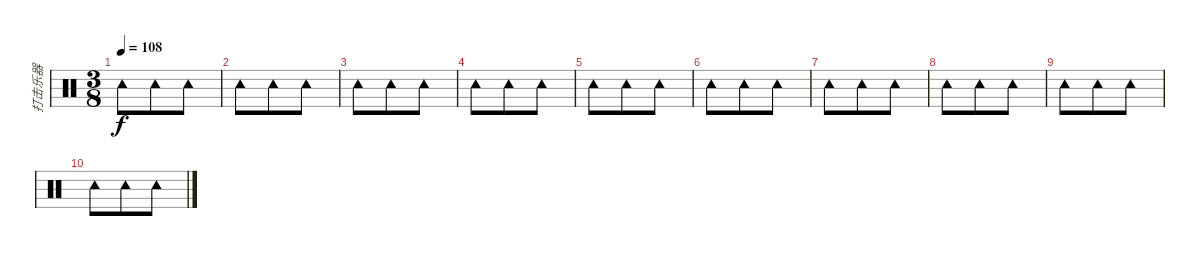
\track ("打击乐器" "打击乐器") {instrument percussion}
\staff {score}
\articulation defaults
\ts (3 8)
\tempo 108
\clef neutral
\ks c "Tambourine (hit)".8{dy f} "Tambourine (hit)".8 "Tambourine (hit)".8
|
"Tambourine (hit)".8 "Tambourine (hit)".8 "Tambourine (hit)".8 |
"Tambourine (hit)".8 "Tambourine (hit)".8 "Tambourine (hit)".8 |
"Tambourine (hit)".8 "Tambourine (hit)".8 "Tambourine (hit)".8 |
"Tambourine (hit)".8 "Tambourine (hit)".8 "Tambourine (hit)".8 |
"Tambourine (hit)".8 "Tambourine (hit)".8 "Tambourine (hit)".8 |
"Tambourine (hit)".8 "Tambourine (hit)".8 "Tambourine (hit)".8 |
"Tambourine (hit)".8 "Tambourine (hit)".8 "Tambourine (hit)".8 |
"Tambourine (hit)".8 "Tambourine (hit)".8 "Tambourine (hit)".8 |
"Tambourine (hit)".8 "Tambourine (hit)".8 "Tambourine (hit)".8
